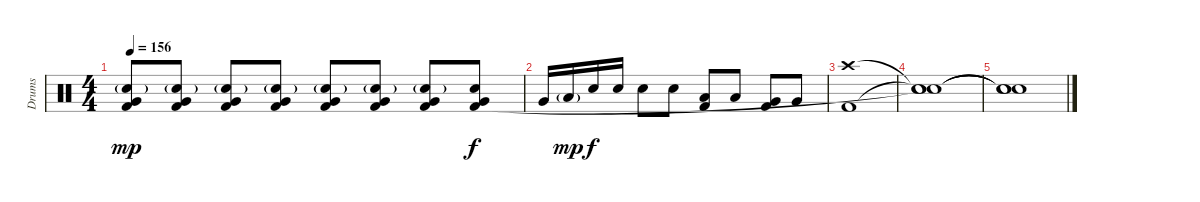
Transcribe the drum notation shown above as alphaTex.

\track ("Drums" "Drums") {instrument percussion}
\staff {score}
\articulation defaults
\ts (4 4)
\tempo 156
\clef neutral
\ks c
("Snare (hit) 2"{g} "Very Low Tom (hit)" "Kick (hit) 2").8{dy mp} ("Snare (hit) 2"{g} "Very Low Tom (hit)" "Kick (hit) 2").8 ("Snare (hit) 2"{g} "Very Low Tom (hit)" "Kick (hit) 2").8 ("Snare (hit) 2"{g} "Very Low Tom (hit)" "Kick (hit) 2").8 ("Snare (hit) 2"{g} "Very Low Tom (hit)" "Kick (hit) 2").8 ("Snare (hit) 2"{g} "Very Low Tom (hit)" "Kick (hit) 2").8 ("Snare (hit) 2"{g} "Very Low Tom (hit)" "Kick (hit) 2").8 ("Snare (hit) 2" "Very Low Tom (hit)" "Kick (hit) 2").8{dy f} |
"Very Low Tom (hit)".16 "Low Tom (hit)"{g}.16{dy mp} "Snare (hit) 2".16{dy f} "Snare (hit) 2".16 "Snare (hit) 2".8 "Snare (hit) 2".8 ("Low Tom (hit)" "Kick (hit) 2").8 "Low Tom (hit)".8 ("Very Low Tom (hit)" "Kick (hit) 2").8 "Very Low Tom (hit)".8 |
("Crash high (hit)" "Kick (hit) 2").1 |
("Snare (hit)"{t} "Snare (hit)"{t} "Snare (hit)"{t}).1 |
("Snare (hit)"{t} "Snare (hit)"{t} "Snare (hit)"{t}).1
